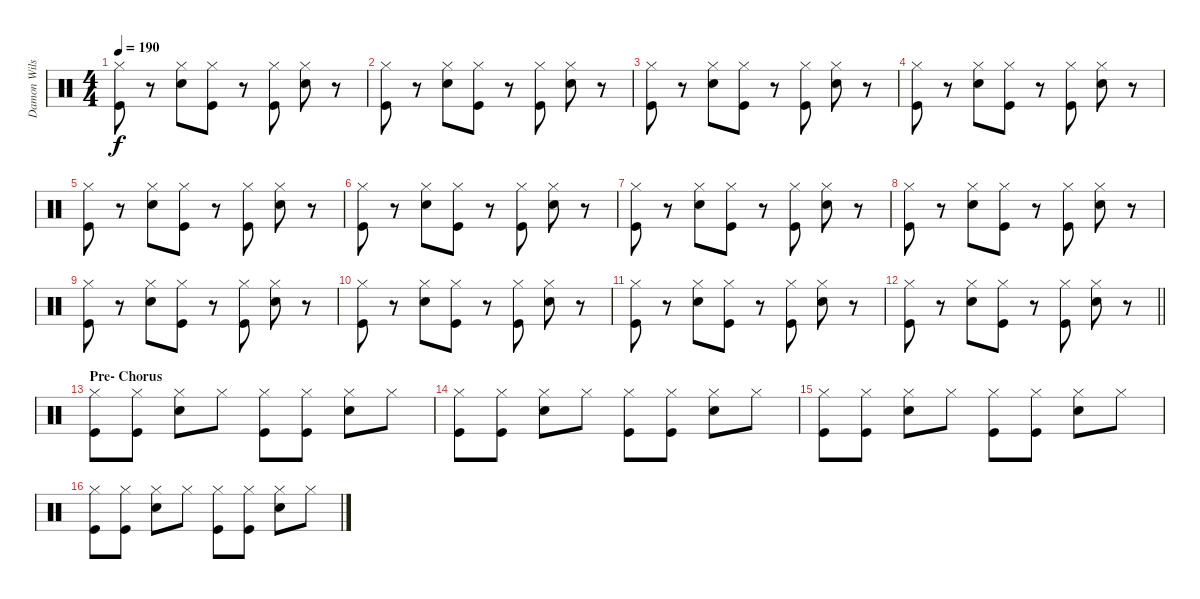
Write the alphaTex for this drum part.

\track ("Damon Wilson" "Damon Wils") {instrument percussion}
\staff {score}
\articulation defaults
\ts (4 4)
\tempo 190
\clef neutral
\ks c
("Hi-Hat (closed)" "Kick (hit)").8{dy f} r.8 ("Hi-Hat (closed)" "Snare (hit) 2").8 ("Hi-Hat (closed)" "Kick (hit)").8 r.8 ("Hi-Hat (closed)" "Kick (hit)").8 ("Hi-Hat (closed)" "Snare (hit) 2").8 r.8 |
("Hi-Hat (closed)" "Kick (hit)").8 r.8 ("Hi-Hat (closed)" "Snare (hit) 2").8 ("Hi-Hat (closed)" "Kick (hit)").8 r.8 ("Hi-Hat (closed)" "Kick (hit)").8 ("Hi-Hat (closed)" "Snare (hit) 2").8 r.8 |
("Hi-Hat (closed)" "Kick (hit)").8 r.8 ("Hi-Hat (closed)" "Snare (hit) 2").8 ("Hi-Hat (closed)" "Kick (hit)").8 r.8 ("Hi-Hat (closed)" "Kick (hit)").8 ("Hi-Hat (closed)" "Snare (hit) 2").8 r.8 |
("Hi-Hat (closed)" "Kick (hit)").8 r.8 ("Hi-Hat (closed)" "Snare (hit) 2").8 ("Hi-Hat (closed)" "Kick (hit)").8 r.8 ("Hi-Hat (closed)" "Kick (hit)").8 ("Hi-Hat (closed)" "Snare (hit) 2").8 r.8 |
("Hi-Hat (closed)" "Kick (hit)").8 r.8 ("Hi-Hat (closed)" "Snare (hit) 2").8 ("Hi-Hat (closed)" "Kick (hit)").8 r.8 ("Hi-Hat (closed)" "Kick (hit)").8 ("Hi-Hat (closed)" "Snare (hit) 2").8 r.8 |
("Hi-Hat (closed)" "Kick (hit)").8 r.8 ("Hi-Hat (closed)" "Snare (hit) 2").8 ("Hi-Hat (closed)" "Kick (hit)").8 r.8 ("Hi-Hat (closed)" "Kick (hit)").8 ("Hi-Hat (closed)" "Snare (hit) 2").8 r.8 |
("Hi-Hat (closed)" "Kick (hit)").8 r.8 ("Hi-Hat (closed)" "Snare (hit) 2").8 ("Hi-Hat (closed)" "Kick (hit)").8 r.8 ("Hi-Hat (closed)" "Kick (hit)").8 ("Hi-Hat (closed)" "Snare (hit) 2").8 r.8 |
("Hi-Hat (closed)" "Kick (hit)").8 r.8 ("Hi-Hat (closed)" "Snare (hit) 2").8 ("Hi-Hat (closed)" "Kick (hit)").8 r.8 ("Hi-Hat (closed)" "Kick (hit)").8 ("Hi-Hat (closed)" "Snare (hit) 2").8 r.8 |
("Hi-Hat (closed)" "Kick (hit)").8 r.8 ("Hi-Hat (closed)" "Snare (hit) 2").8 ("Hi-Hat (closed)" "Kick (hit)").8 r.8 ("Hi-Hat (closed)" "Kick (hit)").8 ("Hi-Hat (closed)" "Snare (hit) 2").8 r.8 |
("Hi-Hat (closed)" "Kick (hit)").8 r.8 ("Hi-Hat (closed)" "Snare (hit) 2").8 ("Hi-Hat (closed)" "Kick (hit)").8 r.8 ("Hi-Hat (closed)" "Kick (hit)").8 ("Hi-Hat (closed)" "Snare (hit) 2").8 r.8 |
("Hi-Hat (closed)" "Kick (hit)").8 r.8 ("Hi-Hat (closed)" "Snare (hit) 2").8 ("Hi-Hat (closed)" "Kick (hit)").8 r.8 ("Hi-Hat (closed)" "Kick (hit)").8 ("Hi-Hat (closed)" "Snare (hit) 2").8 r.8 |
\barLineRight lightlight
("Hi-Hat (closed)" "Kick (hit)").8 r.8 ("Hi-Hat (closed)" "Snare (hit) 2").8 ("Hi-Hat (closed)" "Kick (hit)").8 r.8 ("Hi-Hat (closed)" "Kick (hit)").8 ("Hi-Hat (closed)" "Snare (hit) 2").8 r.8 |
\section ("" "Pre- Chorus")
("Hi-Hat (closed)" "Kick (hit)").8 ("Hi-Hat (closed)" "Kick (hit)").8 ("Hi-Hat (closed)" "Snare (hit) 2").8 "Hi-Hat (closed)".8 ("Hi-Hat (closed)" "Kick (hit)").8 ("Hi-Hat (closed)" "Kick (hit)").8 ("Hi-Hat (closed)" "Snare (hit) 2").8 "Hi-Hat (closed)".8 |
("Hi-Hat (closed)" "Kick (hit)").8 ("Hi-Hat (closed)" "Kick (hit)").8 ("Hi-Hat (closed)" "Snare (hit) 2").8 "Hi-Hat (closed)".8 ("Hi-Hat (closed)" "Kick (hit)").8 ("Hi-Hat (closed)" "Kick (hit)").8 ("Hi-Hat (closed)" "Snare (hit) 2").8 "Hi-Hat (closed)".8 |
("Hi-Hat (closed)" "Kick (hit)").8 ("Hi-Hat (closed)" "Kick (hit)").8 ("Hi-Hat (closed)" "Snare (hit) 2").8 "Hi-Hat (closed)".8 ("Hi-Hat (closed)" "Kick (hit)").8 ("Hi-Hat (closed)" "Kick (hit)").8 ("Hi-Hat (closed)" "Snare (hit) 2").8 "Hi-Hat (closed)".8 |
("Hi-Hat (closed)" "Kick (hit)").8 ("Hi-Hat (closed)" "Kick (hit)").8 ("Hi-Hat (closed)" "Snare (hit) 2").8 "Hi-Hat (closed)".8 ("Hi-Hat (closed)" "Kick (hit)").8 ("Hi-Hat (closed)" "Kick (hit)").8 ("Hi-Hat (closed)" "Snare (hit) 2").8 "Hi-Hat (closed)".8
